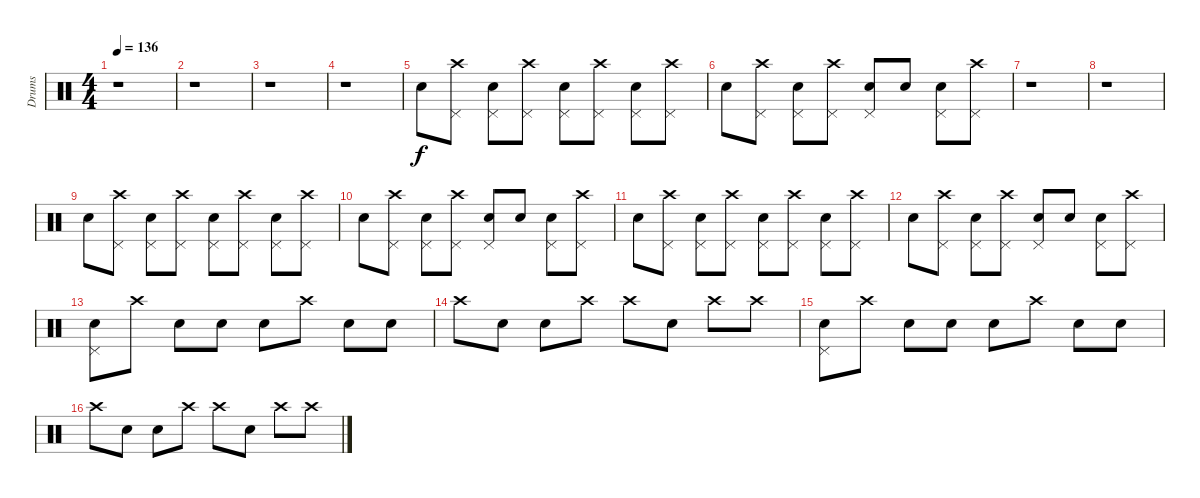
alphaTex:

\track ("Drums" "Drums") {instrument percussion}
\staff {score}
\articulation defaults
\ts (4 4)
\tempo 136
\clef neutral
\ks c
r.1{dy f} |
r.1 |
r.1 |
r.1 |
"Snare (hit) 2".8 ("Crash high (hit)" "Pedal Hi-Hat (hit)").8 ("Pedal Hi-Hat (hit)" "Snare (hit) 2").8 ("Crash high (hit)" "Pedal Hi-Hat (hit)").8 ("Pedal Hi-Hat (hit)" "Snare (hit) 2").8 ("Crash high (hit)" "Pedal Hi-Hat (hit)").8 ("Pedal Hi-Hat (hit)" "Snare (hit) 2").8 ("Crash high (hit)" "Pedal Hi-Hat (hit)").8 |
"Snare (hit) 2".8 ("Crash high (hit)" "Pedal Hi-Hat (hit)").8 ("Pedal Hi-Hat (hit)" "Snare (hit) 2").8 ("Crash high (hit)" "Pedal Hi-Hat (hit)").8 ("Pedal Hi-Hat (hit)" "Snare (hit) 2").8 "Snare (hit) 2".8 ("Pedal Hi-Hat (hit)" "Snare (hit) 2").8 ("Crash high (hit)" "Pedal Hi-Hat (hit)").8 |
r.1 |
r.1 |
"Snare (hit) 2".8 ("Crash high (hit)" "Pedal Hi-Hat (hit)").8 ("Pedal Hi-Hat (hit)" "Snare (hit) 2").8 ("Crash high (hit)" "Pedal Hi-Hat (hit)").8 ("Pedal Hi-Hat (hit)" "Snare (hit) 2").8 ("Crash high (hit)" "Pedal Hi-Hat (hit)").8 ("Pedal Hi-Hat (hit)" "Snare (hit) 2").8 ("Crash high (hit)" "Pedal Hi-Hat (hit)").8 |
"Snare (hit) 2".8 ("Crash high (hit)" "Pedal Hi-Hat (hit)").8 ("Pedal Hi-Hat (hit)" "Snare (hit) 2").8 ("Crash high (hit)" "Pedal Hi-Hat (hit)").8 ("Pedal Hi-Hat (hit)" "Snare (hit) 2").8 "Snare (hit) 2".8 ("Pedal Hi-Hat (hit)" "Snare (hit) 2").8 ("Crash high (hit)" "Pedal Hi-Hat (hit)").8 |
"Snare (hit) 2".8 ("Crash high (hit)" "Pedal Hi-Hat (hit)").8 ("Pedal Hi-Hat (hit)" "Snare (hit) 2").8 ("Crash high (hit)" "Pedal Hi-Hat (hit)").8 ("Pedal Hi-Hat (hit)" "Snare (hit) 2").8 ("Crash high (hit)" "Pedal Hi-Hat (hit)").8 ("Pedal Hi-Hat (hit)" "Snare (hit) 2").8 ("Crash high (hit)" "Pedal Hi-Hat (hit)").8 |
"Snare (hit) 2".8 ("Crash high (hit)" "Pedal Hi-Hat (hit)").8 ("Pedal Hi-Hat (hit)" "Snare (hit) 2").8 ("Crash high (hit)" "Pedal Hi-Hat (hit)").8 ("Pedal Hi-Hat (hit)" "Snare (hit) 2").8 "Snare (hit) 2".8 ("Pedal Hi-Hat (hit)" "Snare (hit) 2").8 ("Crash high (hit)" "Pedal Hi-Hat (hit)").8 |
("Snare (hit) 2" "Pedal Hi-Hat (hit)").8 "Crash high (hit)".8 "Electric Snare (hit)".8 "Snare (hit) 2".8 "Snare (hit) 2".8 "Crash high (hit)".8 "Electric Snare (hit)".8 "Snare (hit) 2".8 |
"Crash high (hit)".8 "Electric Snare (hit)".8 "Snare (hit) 2".8 "Crash high (hit)".8 "Crash high (hit)".8 "Snare (hit) 2".8 "Crash high (hit)".8 "Crash high (hit)".8 |
("Snare (hit) 2" "Pedal Hi-Hat (hit)").8 "Crash high (hit)".8 "Electric Snare (hit)".8 "Snare (hit) 2".8 "Snare (hit) 2".8 "Crash high (hit)".8 "Electric Snare (hit)".8 "Snare (hit) 2".8 |
"Crash high (hit)".8 "Electric Snare (hit)".8 "Snare (hit) 2".8 "Crash high (hit)".8 "Crash high (hit)".8 "Snare (hit) 2".8 "Crash high (hit)".8 "Crash high (hit)".8
